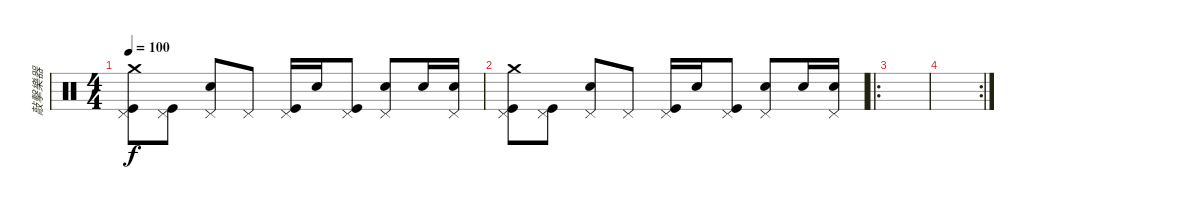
\track ("敲擊樂器" "敲擊樂器") {instrument percussion}
\staff {score}
\articulation defaults
\ts (4 4)
\tempo 100
\clef neutral
\ks c
("Pedal Hi-Hat (hit)" "Kick (hit)" "Crash medium (hit)").8{dy f} ("Pedal Hi-Hat (hit)" "Kick (hit)").8 ("Pedal Hi-Hat (hit)" "Electric Snare (hit)").8 "Pedal Hi-Hat (hit)".8 ("Pedal Hi-Hat (hit)" "Kick (hit)").16 "Electric Snare (hit)".16 ("Pedal Hi-Hat (hit)" "Kick (hit)").8 ("Pedal Hi-Hat (hit)" "Electric Snare (hit)").8 "Electric Snare (hit)".16 ("Pedal Hi-Hat (hit)" "Electric Snare (hit)").16 |
("Pedal Hi-Hat (hit)" "Kick (hit)" "Crash medium (hit)").8 ("Pedal Hi-Hat (hit)" "Kick (hit)").8 ("Pedal Hi-Hat (hit)" "Electric Snare (hit)").8 "Pedal Hi-Hat (hit)".8 ("Pedal Hi-Hat (hit)" "Kick (hit)").16 "Electric Snare (hit)".16 ("Pedal Hi-Hat (hit)" "Kick (hit)").8 ("Pedal Hi-Hat (hit)" "Electric Snare (hit)").8 "Electric Snare (hit)".16 ("Pedal Hi-Hat (hit)" "Electric Snare (hit)").16 |
\ro
|
\rc 2
